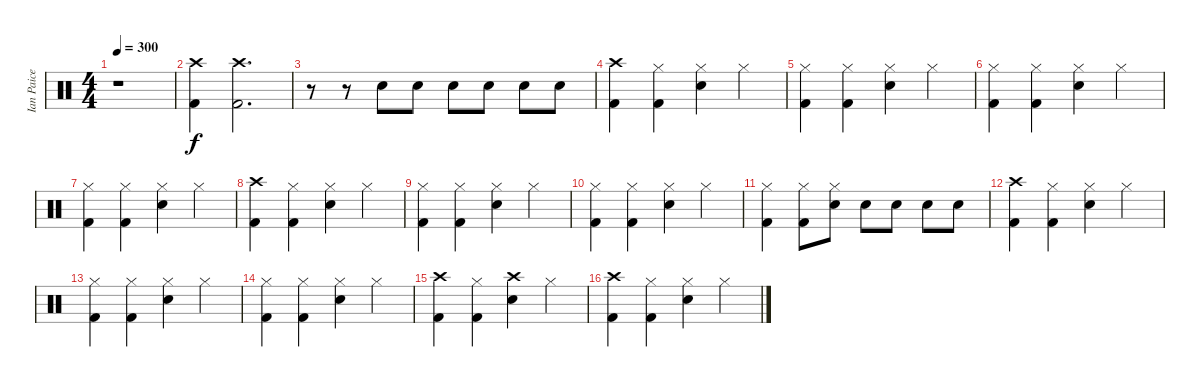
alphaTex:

\track ("Ian Paice" "Ian Paice") {instrument percussion}
\staff {score}
\articulation defaults
\ts (4 4)
\tempo 300
\clef neutral
\ks c
r.1{dy f} |
("Crash high (hit)" "Kick (hit) 2").4 ("Crash high (hit)" "Kick (hit) 2").2{d} |
r.8 r.8 "Electric Snare (hit)".8 "Electric Snare (hit)".8 "Electric Snare (hit)".8 "Electric Snare (hit)".8 "Electric Snare (hit)".8 "Electric Snare (hit)".8 |
("Crash high (hit)" "Kick (hit) 2").4 ("Hi-Hat (closed)" "Kick (hit) 2").4 ("Hi-Hat (closed)" "Electric Snare (hit)").4 "Hi-Hat (closed)".4 |
("Hi-Hat (closed)" "Kick (hit) 2").4 ("Hi-Hat (closed)" "Kick (hit) 2").4 ("Hi-Hat (closed)" "Electric Snare (hit)").4 "Hi-Hat (closed)".4 |
("Hi-Hat (closed)" "Kick (hit) 2").4 ("Hi-Hat (closed)" "Kick (hit) 2").4 ("Hi-Hat (closed)" "Electric Snare (hit)").4 "Hi-Hat (closed)".4 |
("Hi-Hat (closed)" "Kick (hit) 2").4 ("Hi-Hat (closed)" "Kick (hit) 2").4 ("Hi-Hat (closed)" "Electric Snare (hit)").4 "Hi-Hat (closed)".4 |
("Crash high (hit)" "Kick (hit) 2").4 ("Hi-Hat (closed)" "Kick (hit) 2").4 ("Hi-Hat (closed)" "Electric Snare (hit)").4 "Hi-Hat (closed)".4 |
("Hi-Hat (closed)" "Kick (hit) 2").4 ("Hi-Hat (closed)" "Kick (hit) 2").4 ("Hi-Hat (closed)" "Electric Snare (hit)").4 "Hi-Hat (closed)".4 |
("Hi-Hat (closed)" "Kick (hit) 2").4 ("Hi-Hat (closed)" "Kick (hit) 2").4 ("Hi-Hat (closed)" "Electric Snare (hit)").4 "Hi-Hat (closed)".4 |
("Hi-Hat (closed)" "Kick (hit) 2").4 ("Hi-Hat (closed)" "Kick (hit) 2").8 ("Hi-Hat (closed)" "Electric Snare (hit)").8 "Electric Snare (hit)".8 "Electric Snare (hit)".8 "Electric Snare (hit)".8 "Electric Snare (hit)".8 |
("Crash high (hit)" "Kick (hit) 2").4 ("Hi-Hat (closed)" "Kick (hit) 2").4 ("Hi-Hat (closed)" "Electric Snare (hit)").4 "Hi-Hat (closed)".4 |
("Hi-Hat (closed)" "Kick (hit) 2").4 ("Hi-Hat (closed)" "Kick (hit) 2").4 ("Hi-Hat (closed)" "Electric Snare (hit)").4 "Hi-Hat (closed)".4 |
("Hi-Hat (closed)" "Kick (hit) 2").4 ("Hi-Hat (closed)" "Kick (hit) 2").4 ("Hi-Hat (closed)" "Electric Snare (hit)").4 "Hi-Hat (closed)".4 |
("Crash high (hit)" "Kick (hit) 2").4 ("Hi-Hat (closed)" "Kick (hit) 2").4 ("Crash high (hit)" "Electric Snare (hit)").4 "Hi-Hat (closed)".4 |
("Crash high (hit)" "Kick (hit) 2").4 ("Hi-Hat (closed)" "Kick (hit) 2").4 ("Hi-Hat (closed)" "Electric Snare (hit)").4 "Hi-Hat (closed)".4
